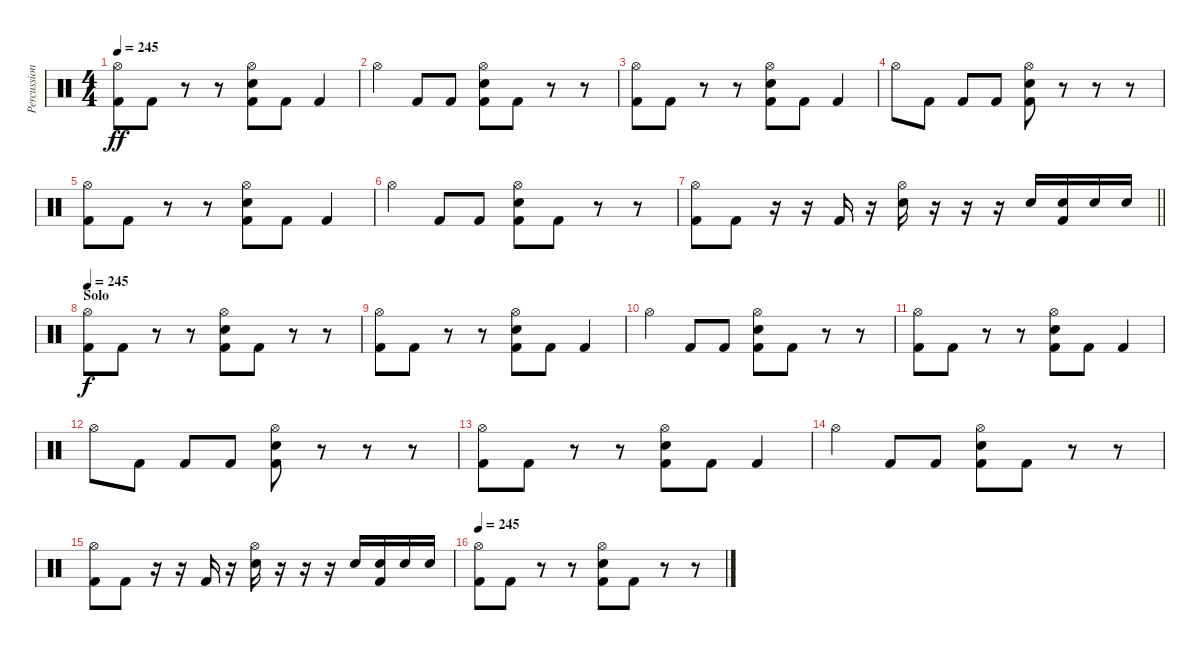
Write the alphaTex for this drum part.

\track ("Percussion" "Percussion") {instrument percussion}
\staff {score}
\articulation defaults
\ts (4 4)
\tempo 245
\clef neutral
\ks c
("Hi-Hat (open)" "Kick (hit) 2").8{dy ff} "Kick (hit) 2".8 r.8 r.8 ("Hi-Hat (open)" "Electric Snare (hit)" "Kick (hit) 2").8 "Kick (hit) 2".8 "Kick (hit) 2".4 |
"Hi-Hat (open)".4 "Kick (hit) 2".8 "Kick (hit) 2".8 ("Hi-Hat (open)" "Electric Snare (hit)" "Kick (hit) 2").8 "Kick (hit) 2".8 r.8 r.8 |
("Hi-Hat (open)" "Kick (hit) 2").8 "Kick (hit) 2".8 r.8 r.8 ("Hi-Hat (open)" "Electric Snare (hit)" "Kick (hit) 2").8 "Kick (hit) 2".8 "Kick (hit) 2".4 |
"Hi-Hat (open)".8 "Kick (hit) 2".8 "Kick (hit) 2".8 "Kick (hit) 2".8 ("Hi-Hat (open)" "Electric Snare (hit)" "Kick (hit) 2").8 r.8 r.8 r.8 |
("Hi-Hat (open)" "Kick (hit) 2").8 "Kick (hit) 2".8 r.8 r.8 ("Hi-Hat (open)" "Electric Snare (hit)" "Kick (hit) 2").8 "Kick (hit) 2".8 "Kick (hit) 2".4 |
"Hi-Hat (open)".4 "Kick (hit) 2".8 "Kick (hit) 2".8 ("Hi-Hat (open)" "Electric Snare (hit)" "Kick (hit) 2").8 "Kick (hit) 2".8 r.8 r.8 |
\barLineRight lightlight
("Hi-Hat (open)" "Kick (hit) 2").8 "Kick (hit) 2".8 r.16 r.16 "Kick (hit) 2".16 r.16 ("Hi-Hat (open)" "Electric Snare (hit)").16 r.16 r.16 r.16 "Electric Snare (hit)".16 ("Electric Snare (hit)" "Kick (hit) 2").16 "Electric Snare (hit)".16 "Electric Snare (hit)".16 |
\section ("" "Solo")
\tempo 245
("Hi-Hat (open)" "Kick (hit) 2").8{dy f} "Kick (hit) 2".8 r.8 r.8 ("Hi-Hat (open)" "Electric Snare (hit)" "Kick (hit) 2").8 "Kick (hit) 2".8 r.8 r.8 |
("Hi-Hat (open)" "Kick (hit) 2").8 "Kick (hit) 2".8 r.8 r.8 ("Hi-Hat (open)" "Electric Snare (hit)" "Kick (hit) 2").8 "Kick (hit) 2".8 "Kick (hit) 2".4 |
"Hi-Hat (open)".4 "Kick (hit) 2".8 "Kick (hit) 2".8 ("Hi-Hat (open)" "Electric Snare (hit)" "Kick (hit) 2").8 "Kick (hit) 2".8 r.8 r.8 |
("Hi-Hat (open)" "Kick (hit) 2").8 "Kick (hit) 2".8 r.8 r.8 ("Hi-Hat (open)" "Electric Snare (hit)" "Kick (hit) 2").8 "Kick (hit) 2".8 "Kick (hit) 2".4 |
"Hi-Hat (open)".8 "Kick (hit) 2".8 "Kick (hit) 2".8 "Kick (hit) 2".8 ("Hi-Hat (open)" "Electric Snare (hit)" "Kick (hit) 2").8 r.8 r.8 r.8 |
("Hi-Hat (open)" "Kick (hit) 2").8 "Kick (hit) 2".8 r.8 r.8 ("Hi-Hat (open)" "Electric Snare (hit)" "Kick (hit) 2").8 "Kick (hit) 2".8 "Kick (hit) 2".4 |
"Hi-Hat (open)".4 "Kick (hit) 2".8 "Kick (hit) 2".8 ("Hi-Hat (open)" "Electric Snare (hit)" "Kick (hit) 2").8 "Kick (hit) 2".8 r.8 r.8 |
("Hi-Hat (open)" "Kick (hit) 2").8 "Kick (hit) 2".8 r.16 r.16 "Kick (hit) 2".16 r.16 ("Hi-Hat (open)" "Electric Snare (hit)").16 r.16 r.16 r.16 "Electric Snare (hit)".16 ("Electric Snare (hit)" "Kick (hit) 2").16 "Electric Snare (hit)".16 "Electric Snare (hit)".16 |
\tempo 245
("Hi-Hat (open)" "Kick (hit) 2").8 "Kick (hit) 2".8 r.8 r.8 ("Hi-Hat (open)" "Electric Snare (hit)" "Kick (hit) 2").8 "Kick (hit) 2".8 r.8 r.8
